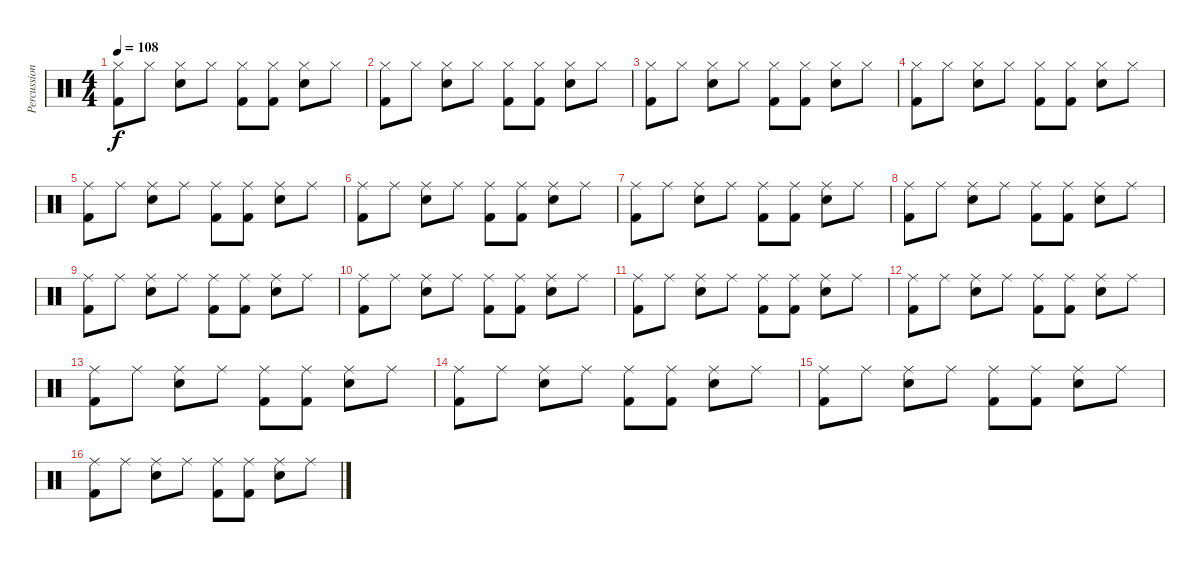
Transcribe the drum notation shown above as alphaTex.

\track ("Percussion" "Percussion") {instrument percussion}
\staff {score}
\articulation defaults
\ts (4 4)
\tempo 108
\clef neutral
\ks c
("Hi-Hat (closed)" "Kick (hit) 2").8{dy f} "Hi-Hat (closed)".8 ("Hi-Hat (closed)" "Electric Snare (hit)").8 "Hi-Hat (closed)".8 ("Hi-Hat (closed)" "Kick (hit) 2").8 ("Hi-Hat (closed)" "Kick (hit) 2").8 ("Hi-Hat (closed)" "Electric Snare (hit)").8 "Hi-Hat (closed)".8 |
("Hi-Hat (closed)" "Kick (hit) 2").8 "Hi-Hat (closed)".8 ("Hi-Hat (closed)" "Electric Snare (hit)").8 "Hi-Hat (closed)".8 ("Hi-Hat (closed)" "Kick (hit) 2").8 ("Hi-Hat (closed)" "Kick (hit) 2").8 ("Hi-Hat (closed)" "Electric Snare (hit)").8 "Hi-Hat (closed)".8 |
("Hi-Hat (closed)" "Kick (hit) 2").8 "Hi-Hat (closed)".8 ("Hi-Hat (closed)" "Electric Snare (hit)").8 "Hi-Hat (closed)".8 ("Hi-Hat (closed)" "Kick (hit) 2").8 ("Hi-Hat (closed)" "Kick (hit) 2").8 ("Hi-Hat (closed)" "Electric Snare (hit)").8 "Hi-Hat (closed)".8 |
("Hi-Hat (closed)" "Kick (hit) 2").8 "Hi-Hat (closed)".8 ("Hi-Hat (closed)" "Electric Snare (hit)").8 "Hi-Hat (closed)".8 ("Hi-Hat (closed)" "Kick (hit) 2").8 ("Hi-Hat (closed)" "Kick (hit) 2").8 ("Hi-Hat (closed)" "Electric Snare (hit)").8 "Hi-Hat (closed)".8 |
("Ride (middle)" "Kick (hit) 2").8 "Ride (middle)".8 ("Ride (middle)" "Electric Snare (hit)").8 "Ride (middle)".8 ("Ride (middle)" "Kick (hit) 2").8 ("Ride (middle)" "Kick (hit) 2").8 ("Ride (middle)" "Electric Snare (hit)").8 "Ride (middle)".8 |
("Ride (middle)" "Kick (hit) 2").8 "Ride (middle)".8 ("Ride (middle)" "Electric Snare (hit)").8 "Ride (middle)".8 ("Ride (middle)" "Kick (hit) 2").8 ("Ride (middle)" "Kick (hit) 2").8 ("Ride (middle)" "Electric Snare (hit)").8 "Ride (middle)".8 |
("Ride (middle)" "Kick (hit) 2").8 "Ride (middle)".8 ("Ride (middle)" "Electric Snare (hit)").8 "Ride (middle)".8 ("Ride (middle)" "Kick (hit) 2").8 ("Ride (middle)" "Kick (hit) 2").8 ("Ride (middle)" "Electric Snare (hit)").8 "Ride (middle)".8 |
("Ride (middle)" "Kick (hit) 2").8 "Ride (middle)".8 ("Ride (middle)" "Electric Snare (hit)").8 "Ride (middle)".8 ("Ride (middle)" "Kick (hit) 2").8 ("Ride (middle)" "Kick (hit) 2").8 ("Ride (middle)" "Electric Snare (hit)").8 "Ride (middle)".8 |
("Ride (middle)" "Kick (hit) 2").8 "Ride (middle)".8 ("Ride (middle)" "Electric Snare (hit)").8 "Ride (middle)".8 ("Ride (middle)" "Kick (hit) 2").8 ("Ride (middle)" "Kick (hit) 2").8 ("Ride (middle)" "Electric Snare (hit)").8 "Ride (middle)".8 |
("Ride (middle)" "Kick (hit) 2").8 "Ride (middle)".8 ("Ride (middle)" "Electric Snare (hit)").8 "Ride (middle)".8 ("Ride (middle)" "Kick (hit) 2").8 ("Ride (middle)" "Kick (hit) 2").8 ("Ride (middle)" "Electric Snare (hit)").8 "Ride (middle)".8 |
("Ride (middle)" "Kick (hit) 2").8 "Ride (middle)".8 ("Ride (middle)" "Electric Snare (hit)").8 "Ride (middle)".8 ("Ride (middle)" "Kick (hit) 2").8 ("Ride (middle)" "Kick (hit) 2").8 ("Ride (middle)" "Electric Snare (hit)").8 "Ride (middle)".8 |
("Ride (middle)" "Kick (hit) 2").8 "Ride (middle)".8 ("Ride (middle)" "Electric Snare (hit)").8 "Ride (middle)".8 ("Ride (middle)" "Kick (hit) 2").8 ("Ride (middle)" "Kick (hit) 2").8 ("Ride (middle)" "Electric Snare (hit)").8 "Ride (middle)".8 |
("Ride (middle)" "Kick (hit) 2").8 "Ride (middle)".8 ("Ride (middle)" "Electric Snare (hit)").8 "Ride (middle)".8 ("Ride (middle)" "Kick (hit) 2").8 ("Ride (middle)" "Kick (hit) 2").8 ("Ride (middle)" "Electric Snare (hit)").8 "Ride (middle)".8 |
("Ride (middle)" "Kick (hit) 2").8 "Ride (middle)".8 ("Ride (middle)" "Electric Snare (hit)").8 "Ride (middle)".8 ("Ride (middle)" "Kick (hit) 2").8 ("Ride (middle)" "Kick (hit) 2").8 ("Ride (middle)" "Electric Snare (hit)").8 "Ride (middle)".8 |
("Ride (middle)" "Kick (hit) 2").8 "Ride (middle)".8 ("Ride (middle)" "Electric Snare (hit)").8 "Ride (middle)".8 ("Ride (middle)" "Kick (hit) 2").8 ("Ride (middle)" "Kick (hit) 2").8 ("Ride (middle)" "Electric Snare (hit)").8 "Ride (middle)".8 |
("Ride (middle)" "Kick (hit) 2").8 "Ride (middle)".8 ("Ride (middle)" "Electric Snare (hit)").8 "Ride (middle)".8 ("Ride (middle)" "Kick (hit) 2").8 ("Ride (middle)" "Kick (hit) 2").8 ("Ride (middle)" "Electric Snare (hit)").8 "Ride (middle)".8
